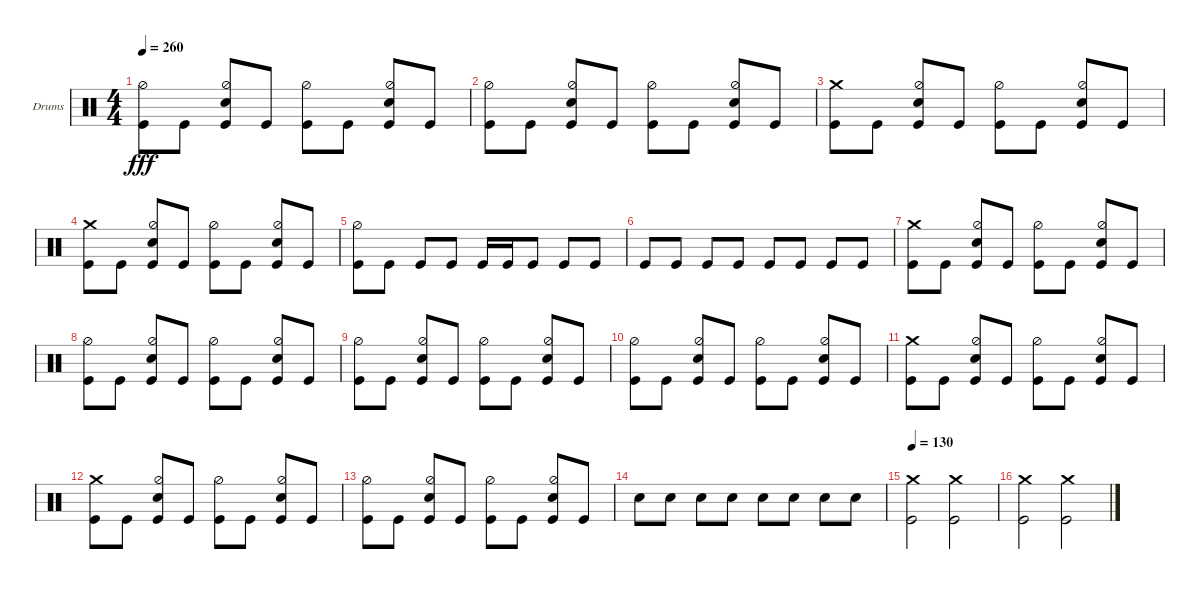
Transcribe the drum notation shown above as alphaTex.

\defaultSystemsLayout 4
\bracketExtendMode groupsimilarinstruments
\firstSystemTrackNameOrientation horizontal
\otherSystemsTrackNameOrientation horizontal
\track ("Stefan Schwarzmann" "Drums") {instrument percussion}
\staff {score}
\articulation defaults
\ts (4 4)
\tempo 260
\clef neutral
\ks c
("Kick (hit)" "Hi-Hat (half)").8{dy fff} "Kick (hit)".8 ("Kick (hit)" "Snare (hit) 2" "Hi-Hat (half)").8 "Kick (hit)".8 ("Kick (hit)" "Hi-Hat (half)").8 "Kick (hit)".8 ("Kick (hit)" "Snare (hit) 2" "Hi-Hat (half)").8 "Kick (hit)".8 |
("Kick (hit)" "Hi-Hat (half)").8 "Kick (hit)".8 ("Kick (hit)" "Snare (hit) 2" "Hi-Hat (half)").8 "Kick (hit)".8 ("Kick (hit)" "Hi-Hat (half)").8 "Kick (hit)".8 ("Kick (hit)" "Snare (hit) 2" "Hi-Hat (half)").8 "Kick (hit)".8 |
("Kick (hit)" "Crash medium (hit)").8 "Kick (hit)".8 ("Kick (hit)" "Snare (hit) 2" "Hi-Hat (half)").8 "Kick (hit)".8 ("Kick (hit)" "Hi-Hat (half)").8 "Kick (hit)".8 ("Kick (hit)" "Snare (hit) 2" "Hi-Hat (half)").8 "Kick (hit)".8 |
("Kick (hit)" "Crash medium (hit)").8 "Kick (hit)".8 ("Kick (hit)" "Snare (hit) 2" "Hi-Hat (half)").8 "Kick (hit)".8 ("Kick (hit)" "Hi-Hat (half)").8 "Kick (hit)".8 ("Kick (hit)" "Snare (hit) 2" "Hi-Hat (half)").8 "Kick (hit)".8 |
("Kick (hit)" "Hi-Hat (half)").8 "Kick (hit)".8 "Kick (hit)".8 "Kick (hit)".8 "Kick (hit)".16 "Kick (hit)".16 "Kick (hit)".8 "Kick (hit)".8 "Kick (hit)".8 |
"Kick (hit)".8 "Kick (hit)".8 "Kick (hit)".8 "Kick (hit)".8 "Kick (hit)".8 "Kick (hit)".8 "Kick (hit)".8 "Kick (hit)".8 |
("Kick (hit)" "Crash medium (hit)").8 "Kick (hit)".8 ("Kick (hit)" "Snare (hit) 2" "Hi-Hat (half)").8 "Kick (hit)".8 ("Kick (hit)" "Hi-Hat (half)").8 "Kick (hit)".8 ("Kick (hit)" "Snare (hit) 2" "Hi-Hat (half)").8 "Kick (hit)".8 |
("Kick (hit)" "Hi-Hat (half)").8 "Kick (hit)".8 ("Kick (hit)" "Snare (hit) 2" "Hi-Hat (half)").8 "Kick (hit)".8 ("Kick (hit)" "Hi-Hat (half)").8 "Kick (hit)".8 ("Kick (hit)" "Snare (hit) 2" "Hi-Hat (half)").8 "Kick (hit)".8 |
("Kick (hit)" "Hi-Hat (half)").8 "Kick (hit)".8 ("Kick (hit)" "Snare (hit) 2" "Hi-Hat (half)").8 "Kick (hit)".8 ("Kick (hit)" "Hi-Hat (half)").8 "Kick (hit)".8 ("Kick (hit)" "Snare (hit) 2" "Hi-Hat (half)").8 "Kick (hit)".8 |
("Kick (hit)" "Hi-Hat (half)").8 "Kick (hit)".8 ("Kick (hit)" "Snare (hit) 2" "Hi-Hat (half)").8 "Kick (hit)".8 ("Kick (hit)" "Hi-Hat (half)").8 "Kick (hit)".8 ("Kick (hit)" "Snare (hit) 2" "Hi-Hat (half)").8 "Kick (hit)".8 |
("Kick (hit)" "Crash medium (hit)").8 "Kick (hit)".8 ("Kick (hit)" "Snare (hit) 2" "Hi-Hat (half)").8 "Kick (hit)".8 ("Kick (hit)" "Hi-Hat (half)").8 "Kick (hit)".8 ("Kick (hit)" "Snare (hit) 2" "Hi-Hat (half)").8 "Kick (hit)".8 |
("Kick (hit)" "Crash medium (hit)").8 "Kick (hit)".8 ("Kick (hit)" "Snare (hit) 2" "Hi-Hat (half)").8 "Kick (hit)".8 ("Kick (hit)" "Hi-Hat (half)").8 "Kick (hit)".8 ("Kick (hit)" "Snare (hit) 2" "Hi-Hat (half)").8 "Kick (hit)".8 |
("Kick (hit)" "Hi-Hat (half)").8 "Kick (hit)".8 ("Kick (hit)" "Snare (hit) 2" "Hi-Hat (half)").8 "Kick (hit)".8 ("Kick (hit)" "Hi-Hat (half)").8 "Kick (hit)".8 ("Kick (hit)" "Snare (hit) 2" "Hi-Hat (half)").8 "Kick (hit)".8 |
"Snare (hit) 2".8 "Snare (hit) 2".8 "Snare (hit) 2".8 "Snare (hit) 2".8 "Snare (hit) 2".8 "Snare (hit) 2".8 "Snare (hit) 2".8 "Snare (hit) 2".8 |
\tempo 130
("Kick (hit)" "Crash medium (hit)").2 ("Kick (hit)" "Crash medium (hit)").2 |
("Kick (hit)" "Crash medium (hit)").2 ("Kick (hit)" "Crash medium (hit)").2
